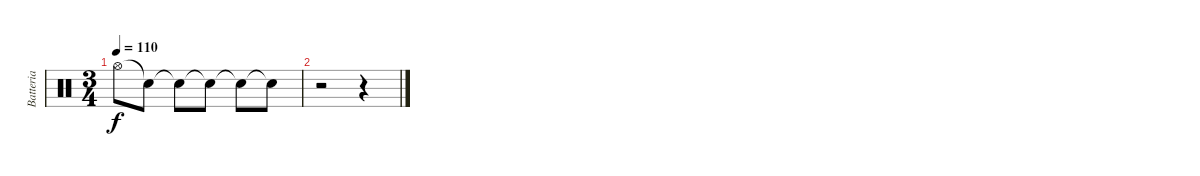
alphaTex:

\track ("Batteria" "Batteria") {instrument percussion}
\staff {score}
\articulation defaults
\ts (3 4)
\tempo 110
\clef neutral
\ks c "Hi-Hat (open)".8{dy f} "Snare (hit)"{t}.8 "Snare (hit)"{t}.8 "Snare (hit)"{t}.8 "Snare (hit)"{t}.8 "Snare (hit)"{t}.8
|
r.2 r.4
